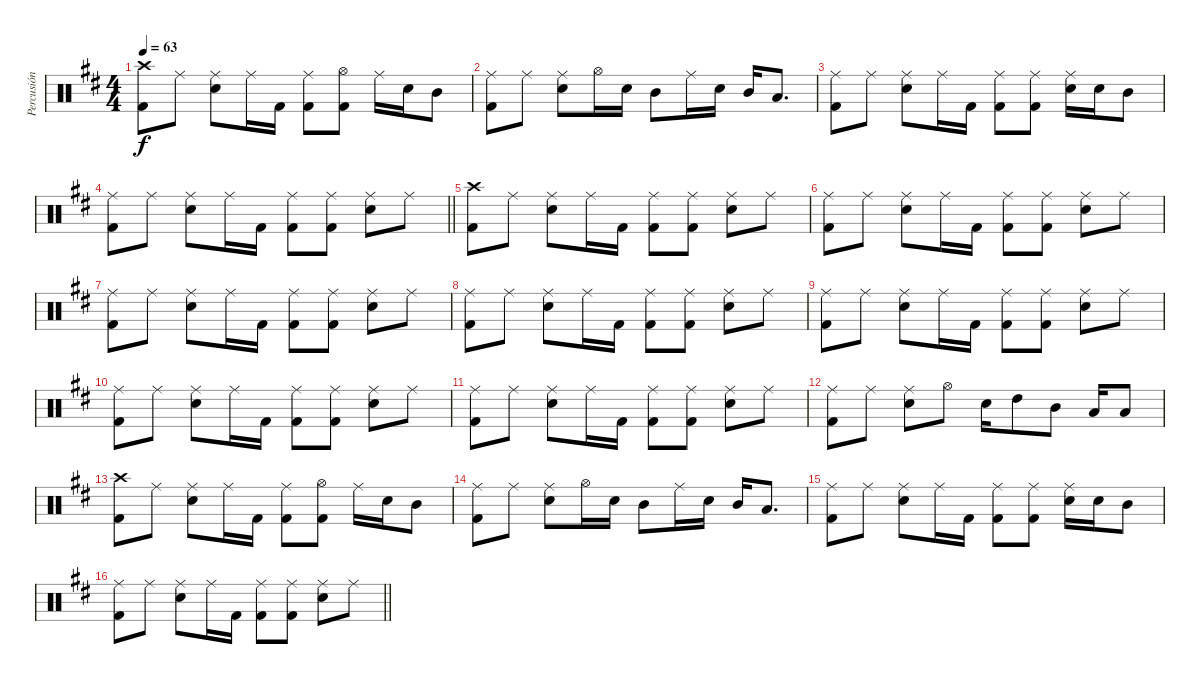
\track ("Percusión" "Percusión") {instrument percussion}
\staff {score}
\articulation defaults
\ts (4 4)
\tempo 63
\clef neutral
\ks d
("Crash high (hit)" "Kick (hit) 2").8{dy f volume 9} "Ride (middle)".8 ("Ride (middle)" "Snare (hit) 2").8 "Ride (middle)".16 "Kick (hit) 2".16 ("Ride (middle)" "Kick (hit) 2").8 ("Hi-Hat (open)" "Kick (hit) 2").8 "Ride (middle)".16 "Snare (hit) 2".16 "Mid Tom (hit)".8 |
("Ride (middle)" "Kick (hit) 2").8 "Ride (middle)".8 ("Ride (middle)" "Snare (hit) 2").8 "Hi-Hat (open)".16 "Snare (hit) 2".16 "Mid Tom (hit)".8 "Ride (middle)".16 "Snare (hit) 2".16 "Mid Tom (hit)".16 "Low Tom (hit)".8{d} |
("Ride (middle)" "Kick (hit) 2").8 "Ride (middle)".8 ("Ride (middle)" "Snare (hit) 2").8 "Ride (middle)".16 "Kick (hit) 2".16 ("Ride (middle)" "Kick (hit) 2").8 ("Ride (middle)" "Kick (hit) 2").8 ("Ride (middle)" "Snare (hit) 2").16 "Snare (hit) 2".16 "Mid Tom (hit)".8 |
\barLineRight lightlight
("Ride (middle)" "Kick (hit) 2").8 "Ride (middle)".8 ("Ride (middle)" "Snare (hit) 2").8 "Ride (middle)".16 "Kick (hit) 2".16 ("Ride (middle)" "Kick (hit) 2").8 ("Ride (middle)" "Kick (hit) 2").8 ("Ride (middle)" "Snare (hit) 2").8 "Ride (middle)".8 |
("Crash high (hit)" "Kick (hit) 2").8 "Ride (middle)".8 ("Ride (middle)" "Snare (hit) 2").8 "Ride (middle)".16 "Kick (hit) 2".16 ("Ride (middle)" "Kick (hit) 2").8 ("Ride (middle)" "Kick (hit) 2").8 ("Ride (middle)" "Snare (hit) 2").8 "Ride (middle)".8 |
("Ride (middle)" "Kick (hit) 2").8 "Ride (middle)".8 ("Ride (middle)" "Snare (hit) 2").8 "Ride (middle)".16 "Kick (hit) 2".16 ("Ride (middle)" "Kick (hit) 2").8 ("Ride (middle)" "Kick (hit) 2").8 ("Ride (middle)" "Snare (hit) 2").8 "Ride (middle)".8 |
("Ride (middle)" "Kick (hit) 2").8 "Ride (middle)".8 ("Ride (middle)" "Snare (hit) 2").8 "Ride (middle)".16 "Kick (hit) 2".16 ("Ride (middle)" "Kick (hit) 2").8 ("Ride (middle)" "Kick (hit) 2").8 ("Ride (middle)" "Snare (hit) 2").8 "Ride (middle)".8 |
("Ride (middle)" "Kick (hit) 2").8 "Ride (middle)".8 ("Ride (middle)" "Snare (hit) 2").8 "Ride (middle)".16 "Kick (hit) 2".16 ("Ride (middle)" "Kick (hit) 2").8 ("Ride (middle)" "Kick (hit) 2").8 ("Ride (middle)" "Snare (hit) 2").8 "Ride (middle)".8 |
("Ride (middle)" "Kick (hit) 2").8 "Ride (middle)".8 ("Ride (middle)" "Snare (hit) 2").8 "Ride (middle)".16 "Kick (hit) 2".16 ("Ride (middle)" "Kick (hit) 2").8 ("Ride (middle)" "Kick (hit) 2").8 ("Ride (middle)" "Snare (hit) 2").8 "Ride (middle)".8 |
("Ride (middle)" "Kick (hit) 2").8 "Ride (middle)".8 ("Ride (middle)" "Snare (hit) 2").8 "Ride (middle)".16 "Kick (hit) 2".16 ("Ride (middle)" "Kick (hit) 2").8 ("Ride (middle)" "Kick (hit) 2").8 ("Ride (middle)" "Snare (hit) 2").8 "Ride (middle)".8 |
("Ride (middle)" "Kick (hit) 2").8 "Ride (middle)".8 ("Ride (middle)" "Snare (hit) 2").8 "Ride (middle)".16 "Kick (hit) 2".16 ("Ride (middle)" "Kick (hit) 2").8 ("Ride (middle)" "Kick (hit) 2").8 ("Ride (middle)" "Snare (hit) 2").8 "Ride (middle)".8 |
("Ride (middle)" "Kick (hit) 2").8 "Ride (middle)".8 ("Ride (middle)" "Snare (hit) 2").8 "Hi-Hat (open)".8 "Snare (hit) 2".16 "High Tom (hit)".8 "Mid Tom (hit)".8 "Low Tom (hit)".16 "Low Tom (hit)".8 |
("Crash high (hit)" "Kick (hit) 2").8{volume 9} "Ride (middle)".8 ("Ride (middle)" "Snare (hit) 2").8 "Ride (middle)".16 "Kick (hit) 2".16 ("Ride (middle)" "Kick (hit) 2").8 ("Hi-Hat (open)" "Kick (hit) 2").8 "Ride (middle)".16 "Snare (hit) 2".16 "Mid Tom (hit)".8 |
("Ride (middle)" "Kick (hit) 2").8 "Ride (middle)".8 ("Ride (middle)" "Snare (hit) 2").8 "Hi-Hat (open)".16 "Snare (hit) 2".16 "Mid Tom (hit)".8 "Ride (middle)".16 "Snare (hit) 2".16 "Mid Tom (hit)".16 "Low Tom (hit)".8{d} |
("Ride (middle)" "Kick (hit) 2").8 "Ride (middle)".8 ("Ride (middle)" "Snare (hit) 2").8 "Ride (middle)".16 "Kick (hit) 2".16 ("Ride (middle)" "Kick (hit) 2").8 ("Ride (middle)" "Kick (hit) 2").8 ("Ride (middle)" "Snare (hit) 2").16 "Snare (hit) 2".16 "Mid Tom (hit)".8 |
\barLineRight lightlight
("Ride (middle)" "Kick (hit) 2").8 "Ride (middle)".8 ("Ride (middle)" "Snare (hit) 2").8 "Ride (middle)".16 "Kick (hit) 2".16 ("Ride (middle)" "Kick (hit) 2").8 ("Ride (middle)" "Kick (hit) 2").8 ("Ride (middle)" "Snare (hit) 2").8 "Ride (middle)".8
